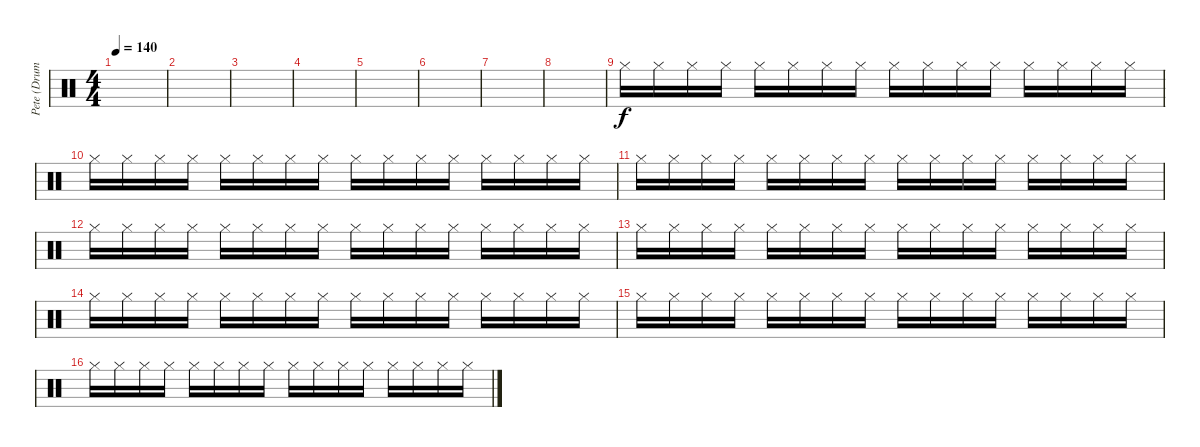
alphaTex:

\track ("Pete (Drums)" "Pete (Drum") {instrument percussion}
\staff {score}
\articulation defaults
\ts (4 4)
\tempo 140
\clef neutral
\ks c
|
|
|
|
|
|
|
|
"Hi-Hat (closed)".16 "Hi-Hat (closed)".16 "Hi-Hat (closed)".16 "Hi-Hat (closed)".16 "Hi-Hat (closed)".16 "Hi-Hat (closed)".16 "Hi-Hat (closed)".16 "Hi-Hat (closed)".16 "Hi-Hat (closed)".16 "Hi-Hat (closed)".16 "Hi-Hat (closed)".16 "Hi-Hat (closed)".16 "Hi-Hat (closed)".16 "Hi-Hat (closed)".16 "Hi-Hat (closed)".16 "Hi-Hat (closed)".16 |
"Hi-Hat (closed)".16 "Hi-Hat (closed)".16 "Hi-Hat (closed)".16 "Hi-Hat (closed)".16 "Hi-Hat (closed)".16 "Hi-Hat (closed)".16 "Hi-Hat (closed)".16 "Hi-Hat (closed)".16 "Hi-Hat (closed)".16 "Hi-Hat (closed)".16 "Hi-Hat (closed)".16 "Hi-Hat (closed)".16 "Hi-Hat (closed)".16 "Hi-Hat (closed)".16 "Hi-Hat (closed)".16 "Hi-Hat (closed)".16 |
"Hi-Hat (closed)".16 "Hi-Hat (closed)".16 "Hi-Hat (closed)".16 "Hi-Hat (closed)".16 "Hi-Hat (closed)".16 "Hi-Hat (closed)".16 "Hi-Hat (closed)".16 "Hi-Hat (closed)".16 "Hi-Hat (closed)".16 "Hi-Hat (closed)".16 "Hi-Hat (closed)".16 "Hi-Hat (closed)".16 "Hi-Hat (closed)".16 "Hi-Hat (closed)".16 "Hi-Hat (closed)".16 "Hi-Hat (closed)".16 |
"Hi-Hat (closed)".16 "Hi-Hat (closed)".16 "Hi-Hat (closed)".16 "Hi-Hat (closed)".16 "Hi-Hat (closed)".16 "Hi-Hat (closed)".16 "Hi-Hat (closed)".16 "Hi-Hat (closed)".16 "Hi-Hat (closed)".16 "Hi-Hat (closed)".16 "Hi-Hat (closed)".16 "Hi-Hat (closed)".16 "Hi-Hat (closed)".16 "Hi-Hat (closed)".16 "Hi-Hat (closed)".16 "Hi-Hat (closed)".16 |
"Hi-Hat (closed)".16 "Hi-Hat (closed)".16 "Hi-Hat (closed)".16 "Hi-Hat (closed)".16 "Hi-Hat (closed)".16 "Hi-Hat (closed)".16 "Hi-Hat (closed)".16 "Hi-Hat (closed)".16 "Hi-Hat (closed)".16 "Hi-Hat (closed)".16 "Hi-Hat (closed)".16 "Hi-Hat (closed)".16 "Hi-Hat (closed)".16 "Hi-Hat (closed)".16 "Hi-Hat (closed)".16 "Hi-Hat (closed)".16 |
"Hi-Hat (closed)".16 "Hi-Hat (closed)".16 "Hi-Hat (closed)".16 "Hi-Hat (closed)".16 "Hi-Hat (closed)".16 "Hi-Hat (closed)".16 "Hi-Hat (closed)".16 "Hi-Hat (closed)".16 "Hi-Hat (closed)".16 "Hi-Hat (closed)".16 "Hi-Hat (closed)".16 "Hi-Hat (closed)".16 "Hi-Hat (closed)".16 "Hi-Hat (closed)".16 "Hi-Hat (closed)".16 "Hi-Hat (closed)".16 |
"Hi-Hat (closed)".16 "Hi-Hat (closed)".16 "Hi-Hat (closed)".16 "Hi-Hat (closed)".16 "Hi-Hat (closed)".16 "Hi-Hat (closed)".16 "Hi-Hat (closed)".16 "Hi-Hat (closed)".16 "Hi-Hat (closed)".16 "Hi-Hat (closed)".16 "Hi-Hat (closed)".16 "Hi-Hat (closed)".16 "Hi-Hat (closed)".16 "Hi-Hat (closed)".16 "Hi-Hat (closed)".16 "Hi-Hat (closed)".16 |
"Hi-Hat (closed)".16 "Hi-Hat (closed)".16 "Hi-Hat (closed)".16 "Hi-Hat (closed)".16 "Hi-Hat (closed)".16 "Hi-Hat (closed)".16 "Hi-Hat (closed)".16 "Hi-Hat (closed)".16 "Hi-Hat (closed)".16 "Hi-Hat (closed)".16 "Hi-Hat (closed)".16 "Hi-Hat (closed)".16 "Hi-Hat (closed)".16 "Hi-Hat (closed)".16 "Hi-Hat (closed)".16 "Hi-Hat (closed)".16
